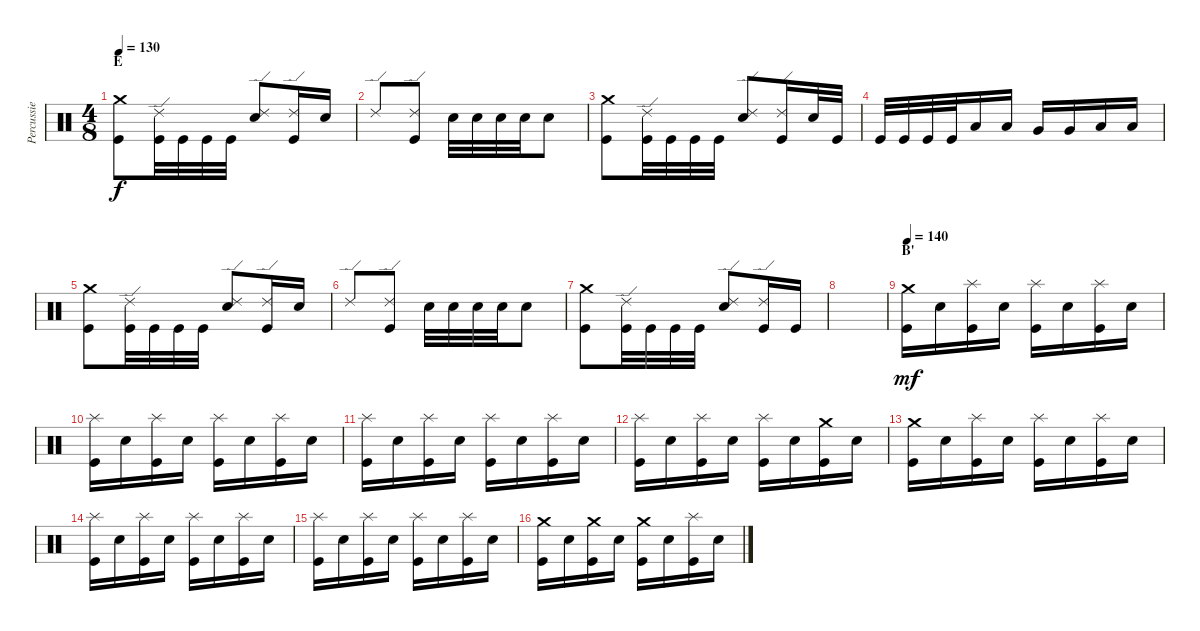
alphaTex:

\track ("Percussie" "Percussie") {instrument percussion}
\staff {score}
\articulation defaults
\ts (4 8)
\section ("" "E")
\tempo 130
\clef neutral
\ks c
("Crash medium (hit)" "Kick (hit)").8{dy f} ("Ride (edge) 2" "Kick (hit)").32 "Kick (hit)".32 "Kick (hit)".32 "Kick (hit)".32 ("Ride (edge) 2" "Electric Snare (hit)").8 ("Ride (edge) 2" "Kick (hit)").16 "Electric Snare (hit)".16 |
"Ride (edge) 2".8 ("Ride (edge) 2" "Kick (hit)").8 "Electric Snare (hit)".32 "Electric Snare (hit)".32 "Electric Snare (hit)".32 "Electric Snare (hit)".32 "Electric Snare (hit)".8 |
("Crash medium (hit)" "Kick (hit)").8 ("Ride (edge) 2" "Kick (hit)").32 "Kick (hit)".32 "Kick (hit)".32 "Kick (hit)".32 ("Ride (edge) 2" "Electric Snare (hit)").8 ("Ride (edge) 2" "Kick (hit)").16 "Electric Snare (hit)".32 "Kick (hit)".32 |
"Kick (hit)".32 "Kick (hit)".32 "Kick (hit)".32 "Kick (hit)".32 "Low Tom (hit)".16 "Low Tom (hit)".16 "Very Low Tom (hit)".16 "Very Low Tom (hit)".16 "Low Floor Tom (hit)".16 "Low Floor Tom (hit)".16 |
("Crash medium (hit)" "Kick (hit)").8 ("Ride (edge) 2" "Kick (hit)").32 "Kick (hit)".32 "Kick (hit)".32 "Kick (hit)".32 ("Ride (edge) 2" "Electric Snare (hit)").8 ("Ride (edge) 2" "Kick (hit)").16 "Electric Snare (hit)".16 |
"Ride (edge) 2".8 ("Ride (edge) 2" "Kick (hit)").8 "Electric Snare (hit)".32 "Electric Snare (hit)".32 "Electric Snare (hit)".32 "Electric Snare (hit)".32 "Electric Snare (hit)".8 |
("Crash medium (hit)" "Kick (hit)").8 ("Ride (edge) 2" "Kick (hit)").32 "Kick (hit)".32 "Kick (hit)".32 "Kick (hit)".32 ("Ride (edge) 2" "Electric Snare (hit)").8 ("Ride (edge) 2" "Kick (hit)").16 "Kick (hit)".16 |
|
\section ("" "B'")
\tempo 140
("Crash medium (hit)" "Kick (hit)").16{dy mf} "Electric Snare (hit)".16 ("Splash (hit)" "Kick (hit)").16 "Electric Snare (hit)".16 ("Splash (hit)" "Kick (hit)").16 "Electric Snare (hit)".16 ("Splash (hit)" "Kick (hit)").16 "Electric Snare (hit)".16 |
("Splash (hit)" "Kick (hit)").16 "Electric Snare (hit)".16 ("Splash (hit)" "Kick (hit)").16 "Electric Snare (hit)".16 ("Splash (hit)" "Kick (hit)").16 "Electric Snare (hit)".16 ("Splash (hit)" "Kick (hit)").16 "Electric Snare (hit)".16 |
("Splash (hit)" "Kick (hit)").16 "Electric Snare (hit)".16 ("Splash (hit)" "Kick (hit)").16 "Electric Snare (hit)".16 ("Splash (hit)" "Kick (hit)").16 "Electric Snare (hit)".16 ("Splash (hit)" "Kick (hit)").16 "Electric Snare (hit)".16 |
("Splash (hit)" "Kick (hit)").16 "Electric Snare (hit)".16 ("Splash (hit)" "Kick (hit)").16 "Electric Snare (hit)".16 ("Splash (hit)" "Kick (hit)").16 "Electric Snare (hit)".16 ("Crash medium (hit)" "Kick (hit)").16 "Electric Snare (hit)".16 |
("Crash medium (hit)" "Kick (hit)").16 "Electric Snare (hit)".16 ("Splash (hit)" "Kick (hit)").16 "Electric Snare (hit)".16 ("Splash (hit)" "Kick (hit)").16 "Electric Snare (hit)".16 ("Splash (hit)" "Kick (hit)").16 "Electric Snare (hit)".16 |
("Splash (hit)" "Kick (hit)").16 "Electric Snare (hit)".16 ("Splash (hit)" "Kick (hit)").16 "Electric Snare (hit)".16 ("Splash (hit)" "Kick (hit)").16 "Electric Snare (hit)".16 ("Splash (hit)" "Kick (hit)").16 "Electric Snare (hit)".16 |
("Splash (hit)" "Kick (hit)").16 "Electric Snare (hit)".16 ("Splash (hit)" "Kick (hit)").16 "Electric Snare (hit)".16 ("Splash (hit)" "Kick (hit)").16 "Electric Snare (hit)".16 ("Splash (hit)" "Kick (hit)").16 "Electric Snare (hit)".16 |
("Crash medium (hit)" "Kick (hit)").16 "Electric Snare (hit)".16 ("Crash medium (hit)" "Kick (hit)").16 "Electric Snare (hit)".16 ("Crash medium (hit)" "Kick (hit)").16 "Electric Snare (hit)".16 ("Splash (hit)" "Kick (hit)").16 "Electric Snare (hit)".16
